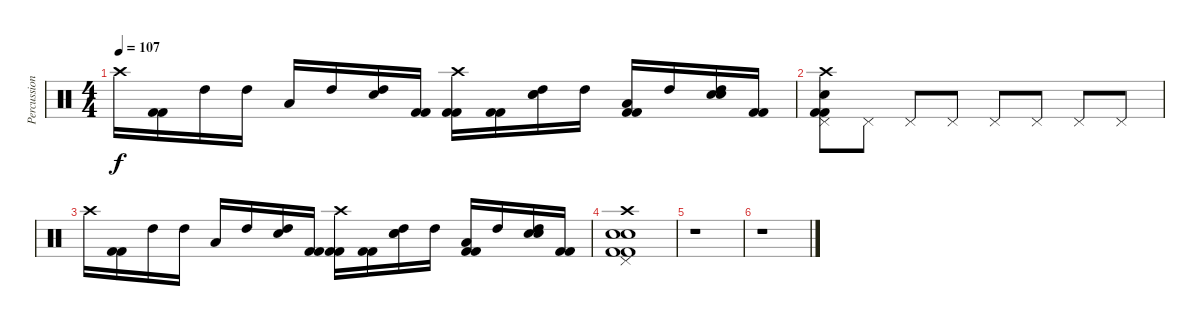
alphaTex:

\track ("Percussion" "Percussion") {instrument percussion}
\staff {score}
\articulation defaults
\ts (4 4)
\tempo 107
\clef neutral
\ks c "Crash high (hit)".16{dy f}
("Kick (hit) 2" "Kick (hit) 2").16 "High Tom (hit)".16 "High Tom (hit)".16 "Low Tom (hit)".16 "High Tom (hit)".16 ("High Tom (hit)" "Electric Snare (hit)").16 ("Kick (hit) 2" "Kick (hit) 2").16 ("Crash high (hit)" "Kick (hit) 2" "Kick (hit) 2").16 ("Kick (hit) 2" "Kick (hit) 2").16 ("High Tom (hit)" "Electric Snare (hit)" "Electric Snare (hit)").16 "High Tom (hit)".16 ("Low Tom (hit)" "Kick (hit) 2" "Kick (hit) 2").16 "High Tom (hit)".16 ("High Tom (hit)" "Electric Snare (hit)" "Electric Snare (hit)").16 ("Kick (hit) 2" "Kick (hit) 2").16 |
("Pedal Hi-Hat (hit)" "Electric Snare (hit)" "Kick (hit) 2" "Kick (hit) 2" "Crash high (hit)").8 "Pedal Hi-Hat (hit)".8 "Pedal Hi-Hat (hit)".8 "Pedal Hi-Hat (hit)".8 "Pedal Hi-Hat (hit)".8 "Pedal Hi-Hat (hit)".8 "Pedal Hi-Hat (hit)".8 "Pedal Hi-Hat (hit)".8 |
"Crash high (hit)".16 ("Kick (hit) 2" "Kick (hit) 2").16 "High Tom (hit)".16 "High Tom (hit)".16 "Low Tom (hit)".16 "High Tom (hit)".16 ("High Tom (hit)" "Electric Snare (hit)").16 ("Kick (hit) 2" "Kick (hit) 2").16 ("Crash high (hit)" "Kick (hit) 2" "Kick (hit) 2").16 ("Kick (hit) 2" "Kick (hit) 2").16 ("High Tom (hit)" "Electric Snare (hit)" "Electric Snare (hit)").16 "High Tom (hit)".16 ("Low Tom (hit)" "Kick (hit) 2" "Kick (hit) 2").16 "High Tom (hit)".16 ("High Tom (hit)" "Electric Snare (hit)" "Electric Snare (hit)").16 ("Kick (hit) 2" "Kick (hit) 2").16 |
("Pedal Hi-Hat (hit)" "Crash high (hit)" "Electric Snare (hit)" "Electric Snare (hit)" "Kick (hit) 2" "Kick (hit) 2").1 |
r.1 |
r.1
